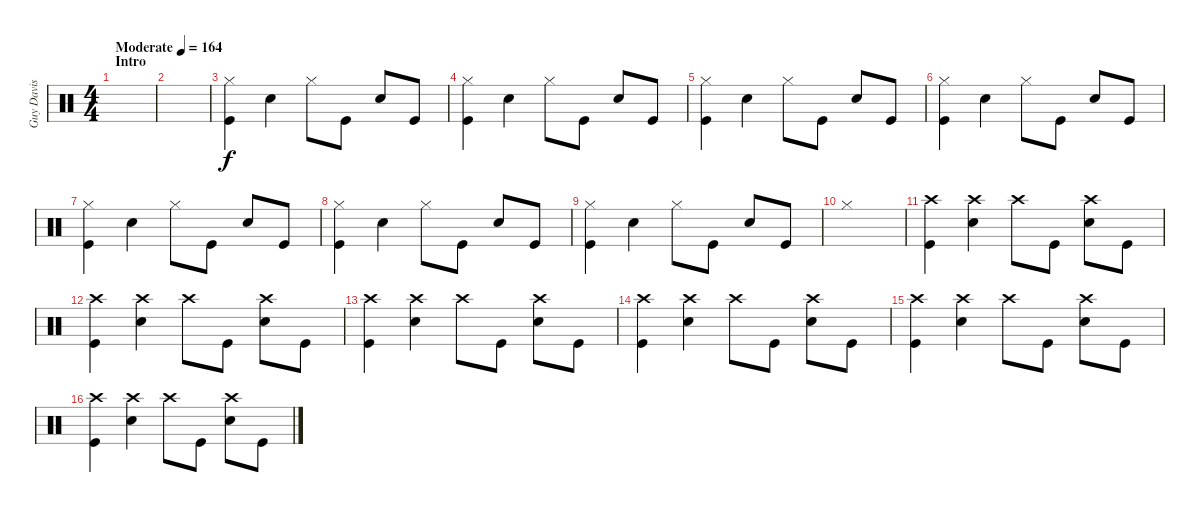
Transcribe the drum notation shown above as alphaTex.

\track ("Guy Davis" "Guy Davis") {instrument percussion}
\staff {score}
\articulation defaults
\ts (4 4)
\section ("" "Intro")
\tempo (164 "Moderate")
\clef neutral
\ks c
|
|
("Hi-Hat (closed)" "Kick (hit)").4 "Snare (hit) 2".4 "Hi-Hat (closed)".8 "Kick (hit)".8 "Snare (hit) 2".8 "Kick (hit)".8 |
("Hi-Hat (closed)" "Kick (hit)").4 "Snare (hit) 2".4 "Hi-Hat (closed)".8 "Kick (hit)".8 "Snare (hit) 2".8 "Kick (hit)".8 |
("Hi-Hat (closed)" "Kick (hit)").4 "Snare (hit) 2".4 "Hi-Hat (closed)".8 "Kick (hit)".8 "Snare (hit) 2".8 "Kick (hit)".8 |
("Hi-Hat (closed)" "Kick (hit)").4 "Snare (hit) 2".4 "Hi-Hat (closed)".8 "Kick (hit)".8 "Snare (hit) 2".8 "Kick (hit)".8 |
("Hi-Hat (closed)" "Kick (hit)").4 "Snare (hit) 2".4 "Hi-Hat (closed)".8 "Kick (hit)".8 "Snare (hit) 2".8 "Kick (hit)".8 |
("Hi-Hat (closed)" "Kick (hit)").4 "Snare (hit) 2".4 "Hi-Hat (closed)".8 "Kick (hit)".8 "Snare (hit) 2".8 "Kick (hit)".8 |
("Hi-Hat (closed)" "Kick (hit)").4 "Snare (hit) 2".4 "Hi-Hat (closed)".8 "Kick (hit)".8 "Snare (hit) 2".8 "Kick (hit)".8 |
"Hi-Hat (closed)".1 |
("Crash high (hit)" "Kick (hit)").4 ("Snare (hit) 2" "Crash high (hit)").4 "Crash high (hit)".8 "Kick (hit)".8 ("Snare (hit) 2" "Crash high (hit)").8 "Kick (hit)".8 |
("Crash high (hit)" "Kick (hit)").4 ("Snare (hit) 2" "Crash high (hit)").4 "Crash high (hit)".8 "Kick (hit)".8 ("Snare (hit) 2" "Crash high (hit)").8 "Kick (hit)".8 |
("Crash high (hit)" "Kick (hit)").4 ("Snare (hit) 2" "Crash high (hit)").4 "Crash high (hit)".8 "Kick (hit)".8 ("Snare (hit) 2" "Crash high (hit)").8 "Kick (hit)".8 |
("Crash high (hit)" "Kick (hit)").4 ("Snare (hit) 2" "Crash high (hit)").4 "Crash high (hit)".8 "Kick (hit)".8 ("Snare (hit) 2" "Crash high (hit)").8 "Kick (hit)".8 |
("Crash high (hit)" "Kick (hit)").4 ("Snare (hit) 2" "Crash high (hit)").4 "Crash high (hit)".8 "Kick (hit)".8 ("Snare (hit) 2" "Crash high (hit)").8 "Kick (hit)".8 |
("Crash high (hit)" "Kick (hit)").4 ("Snare (hit) 2" "Crash high (hit)").4 "Crash high (hit)".8 "Kick (hit)".8 ("Snare (hit) 2" "Crash high (hit)").8 "Kick (hit)".8
